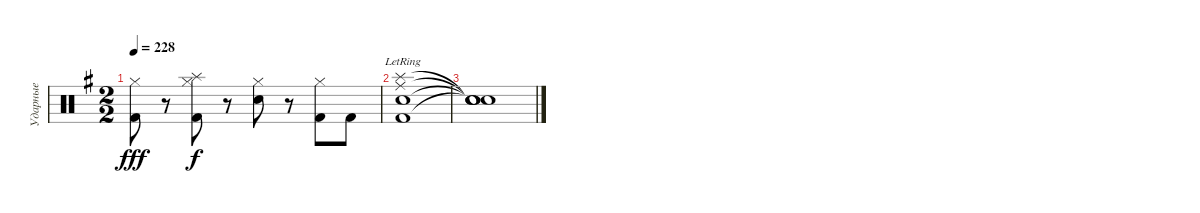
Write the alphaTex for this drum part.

\track ("Ударные" "Ударные") {instrument percussion}
\staff {score}
\articulation defaults
\ts (2 2)
\tempo 228
\clef neutral
\ks eminor
("Hi-Hat (closed)" "Kick (hit) 2").8{dy fff} r.8 ("Hi-Hat (closed)" "Splash (hit)" "Kick (hit) 2").8{dy f} r.8 ("Hi-Hat (closed)" "Snare (hit) 2").8 r.8 ("Hi-Hat (closed)" "Kick (hit) 2").8 "Kick (hit) 2".8 |
("Ride (middle)"{lr} "Splash (hit)"{lr} "Kick (hit) 2" "Snare (hit) 2").1 |
("Snare (hit)"{t} "Snare (hit)"{t} "Snare (hit)"{t} "Snare (hit)"{t}).1
